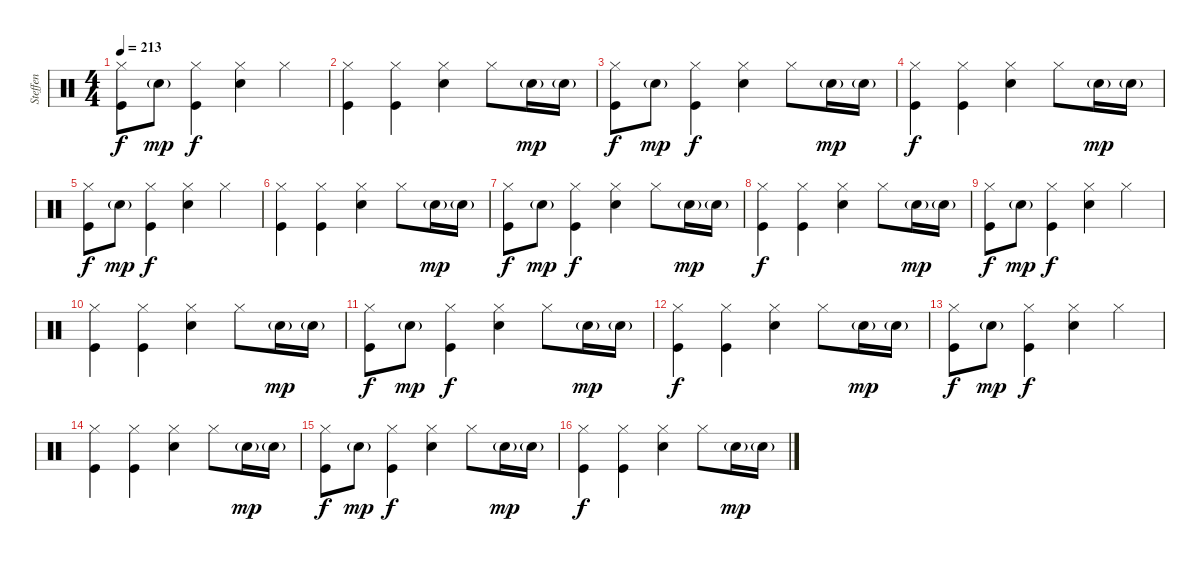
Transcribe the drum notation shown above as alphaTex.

\track ("Steffen" "Steffen") {instrument percussion}
\staff {score}
\articulation defaults
\ts (4 4)
\tempo 213
\clef neutral
\ks c
("Hi-Hat (closed)" "Kick (hit)").8{dy f} "Snare (hit) 2"{g}.8{dy mp} ("Hi-Hat (closed)" "Kick (hit)").4{dy f} ("Hi-Hat (closed)" "Snare (hit) 2").4 "Hi-Hat (closed)".4 |
("Hi-Hat (closed)" "Kick (hit)").4 ("Hi-Hat (closed)" "Kick (hit)").4 ("Hi-Hat (closed)" "Snare (hit) 2").4 "Hi-Hat (closed)".8 "Snare (hit) 2"{g}.16{dy mp} "Snare (hit) 2"{g}.16 |
("Hi-Hat (closed)" "Kick (hit)").8{dy f} "Snare (hit) 2"{g}.8{dy mp} ("Hi-Hat (closed)" "Kick (hit)").4{dy f} ("Hi-Hat (closed)" "Snare (hit) 2").4 "Hi-Hat (closed)".8 "Snare (hit) 2"{g}.16{dy mp} "Snare (hit) 2"{g}.16 |
("Hi-Hat (closed)" "Kick (hit)").4{dy f} ("Hi-Hat (closed)" "Kick (hit)").4 ("Hi-Hat (closed)" "Snare (hit) 2").4 "Hi-Hat (closed)".8 "Snare (hit) 2"{g}.16{dy mp} "Snare (hit) 2"{g}.16 |
("Hi-Hat (closed)" "Kick (hit)").8{dy f} "Snare (hit) 2"{g}.8{dy mp} ("Hi-Hat (closed)" "Kick (hit)").4{dy f} ("Hi-Hat (closed)" "Snare (hit) 2").4 "Hi-Hat (closed)".4 |
("Hi-Hat (closed)" "Kick (hit)").4 ("Hi-Hat (closed)" "Kick (hit)").4 ("Hi-Hat (closed)" "Snare (hit) 2").4 "Hi-Hat (closed)".8 "Snare (hit) 2"{g}.16{dy mp} "Snare (hit) 2"{g}.16 |
("Hi-Hat (closed)" "Kick (hit)").8{dy f} "Snare (hit) 2"{g}.8{dy mp} ("Hi-Hat (closed)" "Kick (hit)").4{dy f} ("Hi-Hat (closed)" "Snare (hit) 2").4 "Hi-Hat (closed)".8 "Snare (hit) 2"{g}.16{dy mp} "Snare (hit) 2"{g}.16 |
("Hi-Hat (closed)" "Kick (hit)").4{dy f} ("Hi-Hat (closed)" "Kick (hit)").4 ("Hi-Hat (closed)" "Snare (hit) 2").4 "Hi-Hat (closed)".8 "Snare (hit) 2"{g}.16{dy mp} "Snare (hit) 2"{g}.16 |
("Hi-Hat (closed)" "Kick (hit)").8{dy f} "Snare (hit) 2"{g}.8{dy mp} ("Hi-Hat (closed)" "Kick (hit)").4{dy f} ("Hi-Hat (closed)" "Snare (hit) 2").4 "Hi-Hat (closed)".4 |
("Hi-Hat (closed)" "Kick (hit)").4 ("Hi-Hat (closed)" "Kick (hit)").4 ("Hi-Hat (closed)" "Snare (hit) 2").4 "Hi-Hat (closed)".8 "Snare (hit) 2"{g}.16{dy mp} "Snare (hit) 2"{g}.16 |
("Hi-Hat (closed)" "Kick (hit)").8{dy f} "Snare (hit) 2"{g}.8{dy mp} ("Hi-Hat (closed)" "Kick (hit)").4{dy f} ("Hi-Hat (closed)" "Snare (hit) 2").4 "Hi-Hat (closed)".8 "Snare (hit) 2"{g}.16{dy mp} "Snare (hit) 2"{g}.16 |
("Hi-Hat (closed)" "Kick (hit)").4{dy f} ("Hi-Hat (closed)" "Kick (hit)").4 ("Hi-Hat (closed)" "Snare (hit) 2").4 "Hi-Hat (closed)".8 "Snare (hit) 2"{g}.16{dy mp} "Snare (hit) 2"{g}.16 |
("Hi-Hat (closed)" "Kick (hit)").8{dy f} "Snare (hit) 2"{g}.8{dy mp} ("Hi-Hat (closed)" "Kick (hit)").4{dy f} ("Hi-Hat (closed)" "Snare (hit) 2").4 "Hi-Hat (closed)".4 |
("Hi-Hat (closed)" "Kick (hit)").4 ("Hi-Hat (closed)" "Kick (hit)").4 ("Hi-Hat (closed)" "Snare (hit) 2").4 "Hi-Hat (closed)".8 "Snare (hit) 2"{g}.16{dy mp} "Snare (hit) 2"{g}.16 |
("Hi-Hat (closed)" "Kick (hit)").8{dy f} "Snare (hit) 2"{g}.8{dy mp} ("Hi-Hat (closed)" "Kick (hit)").4{dy f} ("Hi-Hat (closed)" "Snare (hit) 2").4 "Hi-Hat (closed)".8 "Snare (hit) 2"{g}.16{dy mp} "Snare (hit) 2"{g}.16 |
("Hi-Hat (closed)" "Kick (hit)").4{dy f} ("Hi-Hat (closed)" "Kick (hit)").4 ("Hi-Hat (closed)" "Snare (hit) 2").4 "Hi-Hat (closed)".8 "Snare (hit) 2"{g}.16{dy mp} "Snare (hit) 2"{g}.16
